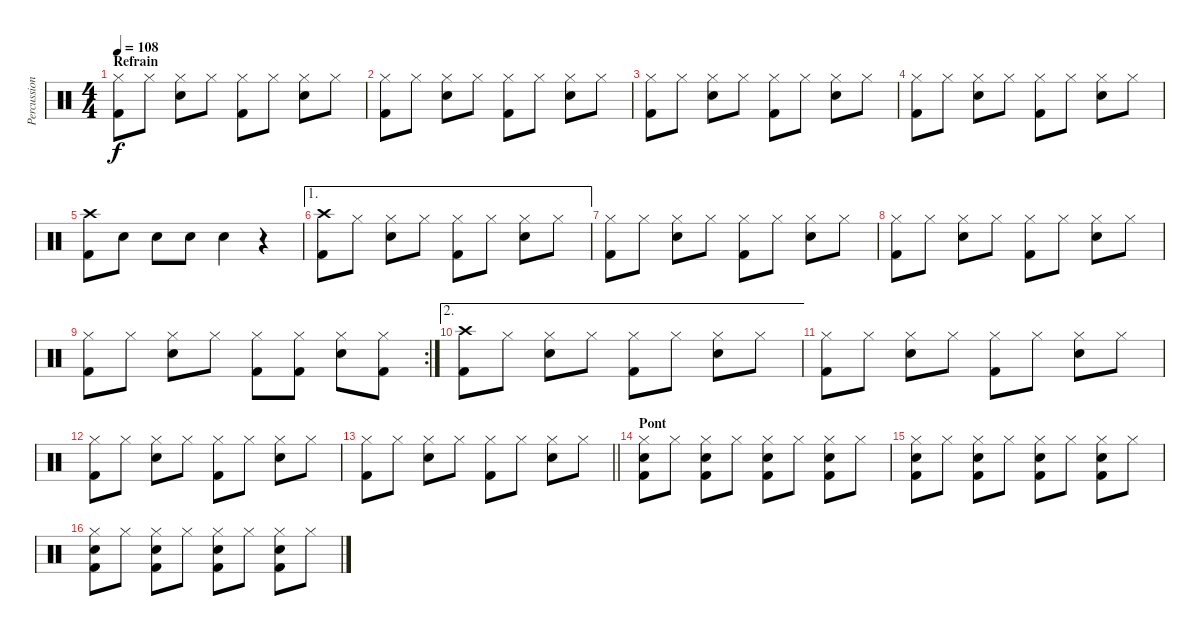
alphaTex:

\track ("Percussions" "Percussion") {instrument percussion}
\staff {score}
\articulation defaults
\ts (4 4)
\section ("" "Refrain")
\tempo 108
\clef neutral
\ks c
("Hi-Hat (closed)" "Kick (hit) 2").8{dy f} "Hi-Hat (closed)".8 ("Hi-Hat (closed)" "Snare (hit) 2").8 "Hi-Hat (closed)".8 ("Hi-Hat (closed)" "Kick (hit) 2").8 "Hi-Hat (closed)".8 ("Hi-Hat (closed)" "Snare (hit) 2").8 "Hi-Hat (closed)".8 |
("Hi-Hat (closed)" "Kick (hit) 2").8 "Hi-Hat (closed)".8 ("Hi-Hat (closed)" "Snare (hit) 2").8 "Hi-Hat (closed)".8 ("Hi-Hat (closed)" "Kick (hit) 2").8 "Hi-Hat (closed)".8 ("Hi-Hat (closed)" "Snare (hit) 2").8 "Hi-Hat (closed)".8 |
("Hi-Hat (closed)" "Kick (hit) 2").8 "Hi-Hat (closed)".8 ("Hi-Hat (closed)" "Snare (hit) 2").8 "Hi-Hat (closed)".8 ("Hi-Hat (closed)" "Kick (hit) 2").8 "Hi-Hat (closed)".8 ("Hi-Hat (closed)" "Snare (hit) 2").8 "Hi-Hat (closed)".8 |
("Hi-Hat (closed)" "Kick (hit) 2").8 "Hi-Hat (closed)".8 ("Hi-Hat (closed)" "Snare (hit) 2").8 "Hi-Hat (closed)".8 ("Hi-Hat (closed)" "Kick (hit) 2").8 "Hi-Hat (closed)".8 ("Hi-Hat (closed)" "Snare (hit) 2").8 "Hi-Hat (closed)".8 |
("Crash high (hit)" "Kick (hit) 2").8 "Snare (hit) 2".8 "Snare (hit) 2".8 "Snare (hit) 2".8 "Snare (hit) 2".4 r.4 |
\ae 1
("Crash high (hit)" "Kick (hit) 2").8 "Hi-Hat (closed)".8 ("Hi-Hat (closed)" "Snare (hit) 2").8 "Hi-Hat (closed)".8 ("Hi-Hat (closed)" "Kick (hit) 2").8 "Hi-Hat (closed)".8 ("Hi-Hat (closed)" "Snare (hit) 2").8 "Hi-Hat (closed)".8 |
("Hi-Hat (closed)" "Kick (hit) 2").8 "Hi-Hat (closed)".8 ("Hi-Hat (closed)" "Snare (hit) 2").8 "Hi-Hat (closed)".8 ("Hi-Hat (closed)" "Kick (hit) 2").8 "Hi-Hat (closed)".8 ("Hi-Hat (closed)" "Snare (hit) 2").8 "Hi-Hat (closed)".8 |
("Hi-Hat (closed)" "Kick (hit) 2").8 "Hi-Hat (closed)".8 ("Hi-Hat (closed)" "Snare (hit) 2").8 "Hi-Hat (closed)".8 ("Hi-Hat (closed)" "Kick (hit) 2").8 "Hi-Hat (closed)".8 ("Hi-Hat (closed)" "Snare (hit) 2").8 "Hi-Hat (closed)".8 |
\rc 2
("Hi-Hat (closed)" "Kick (hit) 2").8 "Hi-Hat (closed)".8 ("Hi-Hat (closed)" "Snare (hit) 2").8 "Hi-Hat (closed)".8 ("Hi-Hat (closed)" "Kick (hit) 2").8 ("Hi-Hat (closed)" "Kick (hit) 2").8 ("Hi-Hat (closed)" "Snare (hit) 2").8 ("Hi-Hat (closed)" "Kick (hit) 2").8 |
\ae 2
("Crash high (hit)" "Kick (hit) 2").8 "Hi-Hat (closed)".8 ("Hi-Hat (closed)" "Snare (hit) 2").8 "Hi-Hat (closed)".8 ("Hi-Hat (closed)" "Kick (hit) 2").8 "Hi-Hat (closed)".8 ("Hi-Hat (closed)" "Snare (hit) 2").8 "Hi-Hat (closed)".8 |
("Hi-Hat (closed)" "Kick (hit) 2").8 "Hi-Hat (closed)".8 ("Hi-Hat (closed)" "Snare (hit) 2").8 "Hi-Hat (closed)".8 ("Hi-Hat (closed)" "Kick (hit) 2").8 "Hi-Hat (closed)".8 ("Hi-Hat (closed)" "Snare (hit) 2").8 "Hi-Hat (closed)".8 |
("Hi-Hat (closed)" "Kick (hit) 2").8 "Hi-Hat (closed)".8 ("Hi-Hat (closed)" "Snare (hit) 2").8 "Hi-Hat (closed)".8 ("Hi-Hat (closed)" "Kick (hit) 2").8 "Hi-Hat (closed)".8 ("Hi-Hat (closed)" "Snare (hit) 2").8 "Hi-Hat (closed)".8 |
\barLineRight lightlight
("Hi-Hat (closed)" "Kick (hit) 2").8 "Hi-Hat (closed)".8 ("Hi-Hat (closed)" "Snare (hit) 2").8 "Hi-Hat (closed)".8 ("Hi-Hat (closed)" "Kick (hit) 2").8 "Hi-Hat (closed)".8 ("Hi-Hat (closed)" "Snare (hit) 2").8 "Hi-Hat (closed)".8 |
\section ("" "Pont")
("Hi-Hat (closed)" "Snare (hit) 2" "Kick (hit) 2").8 "Hi-Hat (closed)".8 ("Hi-Hat (closed)" "Snare (hit) 2" "Kick (hit) 2").8 "Hi-Hat (closed)".8 ("Hi-Hat (closed)" "Snare (hit) 2" "Kick (hit) 2").8 "Hi-Hat (closed)".8 ("Hi-Hat (closed)" "Snare (hit) 2" "Kick (hit) 2").8 "Hi-Hat (closed)".8 |
("Hi-Hat (closed)" "Snare (hit) 2" "Kick (hit) 2").8 "Hi-Hat (closed)".8 ("Hi-Hat (closed)" "Snare (hit) 2" "Kick (hit) 2").8 "Hi-Hat (closed)".8 ("Hi-Hat (closed)" "Snare (hit) 2" "Kick (hit) 2").8 "Hi-Hat (closed)".8 ("Hi-Hat (closed)" "Snare (hit) 2" "Kick (hit) 2").8 "Hi-Hat (closed)".8 |
("Hi-Hat (closed)" "Snare (hit) 2" "Kick (hit) 2").8 "Hi-Hat (closed)".8 ("Hi-Hat (closed)" "Snare (hit) 2" "Kick (hit) 2").8 "Hi-Hat (closed)".8 ("Hi-Hat (closed)" "Snare (hit) 2" "Kick (hit) 2").8 "Hi-Hat (closed)".8 ("Hi-Hat (closed)" "Snare (hit) 2" "Kick (hit) 2").8 "Hi-Hat (closed)".8
